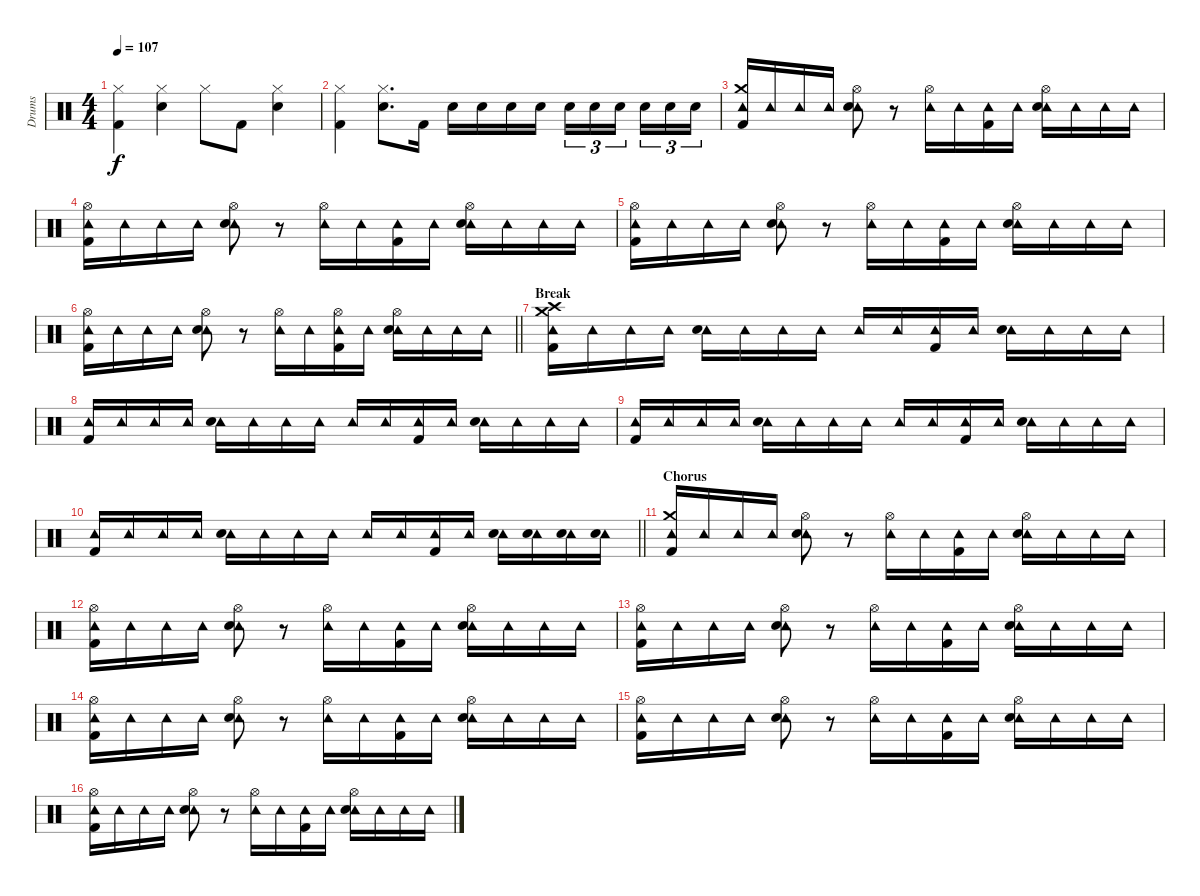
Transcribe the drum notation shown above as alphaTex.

\track ("Drums" "Drums") {instrument percussion}
\staff {score}
\articulation defaults
\ts (4 4)
\tempo 107
\clef neutral
\ks c
("Hi-Hat (closed)" "Kick (hit) 2").4{dy f} ("Hi-Hat (closed)" "Electric Snare (hit)").4 "Hi-Hat (closed)".8 "Kick (hit) 2".8 ("Hi-Hat (closed)" "Electric Snare (hit)").4 |
("Hi-Hat (closed)" "Kick (hit) 2").4 ("Hi-Hat (closed)" "Electric Snare (hit)").8{d} "Kick (hit) 2".16 "Electric Snare (hit)".16 "Electric Snare (hit)".16 "Electric Snare (hit)".16 "Electric Snare (hit)".16 "Electric Snare (hit)".16{tu (3 2)} "Electric Snare (hit)".16{tu (3 2)} "Electric Snare (hit)".16{tu (3 2) beam splitsecondary} "Electric Snare (hit)".16{tu (3 2)} "Electric Snare (hit)".16{tu (3 2)} "Electric Snare (hit)".16{tu (3 2)} |
("Crash medium (hit)" "Tambourine (hit)" "Kick (hit) 2").16 "Tambourine (hit)".16 "Tambourine (hit)".16 "Tambourine (hit)".16 ("Hi-Hat (open)" "Tambourine (hit)" "Electric Snare (hit)").8 r.8 ("Hi-Hat (open)" "Tambourine (hit)").16 "Tambourine (hit)".16 ("Tambourine (hit)" "Kick (hit) 2").16 "Tambourine (hit)".16 ("Hi-Hat (open)" "Tambourine (hit)" "Electric Snare (hit)").16 "Tambourine (hit)".16 "Tambourine (hit)".16 "Tambourine (hit)".16 |
("Hi-Hat (open)" "Tambourine (hit)" "Kick (hit) 2").16 "Tambourine (hit)".16 "Tambourine (hit)".16 "Tambourine (hit)".16 ("Hi-Hat (open)" "Tambourine (hit)" "Electric Snare (hit)").8 r.8 ("Hi-Hat (open)" "Tambourine (hit)").16 "Tambourine (hit)".16 ("Tambourine (hit)" "Kick (hit) 2").16 "Tambourine (hit)".16 ("Hi-Hat (open)" "Tambourine (hit)" "Electric Snare (hit)").16 "Tambourine (hit)".16 "Tambourine (hit)".16 "Tambourine (hit)".16 |
("Hi-Hat (open)" "Tambourine (hit)" "Kick (hit) 2").16 "Tambourine (hit)".16 "Tambourine (hit)".16 "Tambourine (hit)".16 ("Hi-Hat (open)" "Tambourine (hit)" "Electric Snare (hit)").8 r.8 ("Hi-Hat (open)" "Tambourine (hit)").16 "Tambourine (hit)".16 ("Tambourine (hit)" "Kick (hit) 2").16 "Tambourine (hit)".16 ("Hi-Hat (open)" "Tambourine (hit)" "Electric Snare (hit)").16 "Tambourine (hit)".16 "Tambourine (hit)".16 "Tambourine (hit)".16 |
\barLineRight lightlight
("Hi-Hat (open)" "Tambourine (hit)" "Kick (hit) 2").16 "Tambourine (hit)".16 "Tambourine (hit)".16 "Tambourine (hit)".16 ("Hi-Hat (open)" "Tambourine (hit)" "Electric Snare (hit)").8 r.8 ("Hi-Hat (open)" "Tambourine (hit)").16 "Tambourine (hit)".16 ("Hi-Hat (open)" "Tambourine (hit)" "Kick (hit) 2").16 "Tambourine (hit)".16 ("Hi-Hat (open)" "Tambourine (hit)" "Electric Snare (hit)").16 "Tambourine (hit)".16 "Tambourine (hit)".16 "Tambourine (hit)".16 |
\section ("" "Break")
("Crash medium (hit)" "Crash high (hit)" "Tambourine (hit)" "Kick (hit) 2").16 "Tambourine (hit)".16 "Tambourine (hit)".16 "Tambourine (hit)".16 ("Tambourine (hit)" "Electric Snare (hit)").16 "Tambourine (hit)".16 "Tambourine (hit)".16 "Tambourine (hit)".16 "Tambourine (hit)".16 "Tambourine (hit)".16 ("Tambourine (hit)" "Kick (hit) 2").16 "Tambourine (hit)".16 ("Tambourine (hit)" "Electric Snare (hit)").16 "Tambourine (hit)".16 "Tambourine (hit)".16 "Tambourine (hit)".16 |
("Tambourine (hit)" "Kick (hit) 2").16 "Tambourine (hit)".16 "Tambourine (hit)".16 "Tambourine (hit)".16 ("Tambourine (hit)" "Electric Snare (hit)").16 "Tambourine (hit)".16 "Tambourine (hit)".16 "Tambourine (hit)".16 "Tambourine (hit)".16 "Tambourine (hit)".16 ("Tambourine (hit)" "Kick (hit) 2").16 "Tambourine (hit)".16 ("Tambourine (hit)" "Electric Snare (hit)").16 "Tambourine (hit)".16 "Tambourine (hit)".16 "Tambourine (hit)".16 |
("Tambourine (hit)" "Kick (hit) 2").16 "Tambourine (hit)".16 "Tambourine (hit)".16 "Tambourine (hit)".16 ("Tambourine (hit)" "Electric Snare (hit)").16 "Tambourine (hit)".16 "Tambourine (hit)".16 "Tambourine (hit)".16 "Tambourine (hit)".16 "Tambourine (hit)".16 ("Tambourine (hit)" "Kick (hit) 2").16 "Tambourine (hit)".16 ("Tambourine (hit)" "Electric Snare (hit)").16 "Tambourine (hit)".16 "Tambourine (hit)".16 "Tambourine (hit)".16 |
\barLineRight lightlight
("Tambourine (hit)" "Kick (hit) 2").16 "Tambourine (hit)".16 "Tambourine (hit)".16 "Tambourine (hit)".16 ("Tambourine (hit)" "Electric Snare (hit)").16 "Tambourine (hit)".16 "Tambourine (hit)".16 "Tambourine (hit)".16 "Tambourine (hit)".16 "Tambourine (hit)".16 ("Tambourine (hit)" "Kick (hit) 2").16 "Tambourine (hit)".16 ("Tambourine (hit)" "Electric Snare (hit)").16 ("Tambourine (hit)" "Electric Snare (hit)").16 ("Tambourine (hit)" "Electric Snare (hit)").16 ("Tambourine (hit)" "Electric Snare (hit)").16 |
\section ("" "Chorus")
("Crash medium (hit)" "Tambourine (hit)" "Kick (hit) 2").16 "Tambourine (hit)".16 "Tambourine (hit)".16 "Tambourine (hit)".16 ("Hi-Hat (open)" "Tambourine (hit)" "Electric Snare (hit)").8 r.8 ("Hi-Hat (open)" "Tambourine (hit)").16 "Tambourine (hit)".16 ("Tambourine (hit)" "Kick (hit) 2").16 "Tambourine (hit)".16 ("Hi-Hat (open)" "Tambourine (hit)" "Electric Snare (hit)").16 "Tambourine (hit)".16 "Tambourine (hit)".16 "Tambourine (hit)".16 |
("Hi-Hat (open)" "Tambourine (hit)" "Kick (hit) 2").16 "Tambourine (hit)".16 "Tambourine (hit)".16 "Tambourine (hit)".16 ("Hi-Hat (open)" "Tambourine (hit)" "Electric Snare (hit)").8 r.8 ("Hi-Hat (open)" "Tambourine (hit)").16 "Tambourine (hit)".16 ("Tambourine (hit)" "Kick (hit) 2").16 "Tambourine (hit)".16 ("Hi-Hat (open)" "Tambourine (hit)" "Electric Snare (hit)").16 "Tambourine (hit)".16 "Tambourine (hit)".16 "Tambourine (hit)".16 |
("Hi-Hat (open)" "Tambourine (hit)" "Kick (hit) 2").16 "Tambourine (hit)".16 "Tambourine (hit)".16 "Tambourine (hit)".16 ("Hi-Hat (open)" "Tambourine (hit)" "Electric Snare (hit)").8 r.8 ("Hi-Hat (open)" "Tambourine (hit)").16 "Tambourine (hit)".16 ("Tambourine (hit)" "Kick (hit) 2").16 "Tambourine (hit)".16 ("Hi-Hat (open)" "Tambourine (hit)" "Electric Snare (hit)").16 "Tambourine (hit)".16 "Tambourine (hit)".16 "Tambourine (hit)".16 |
("Hi-Hat (open)" "Tambourine (hit)" "Kick (hit) 2").16 "Tambourine (hit)".16 "Tambourine (hit)".16 "Tambourine (hit)".16 ("Hi-Hat (open)" "Tambourine (hit)" "Electric Snare (hit)").8 r.8 ("Hi-Hat (open)" "Tambourine (hit)").16 "Tambourine (hit)".16 ("Tambourine (hit)" "Kick (hit) 2").16 "Tambourine (hit)".16 ("Hi-Hat (open)" "Tambourine (hit)" "Electric Snare (hit)").16 "Tambourine (hit)".16 "Tambourine (hit)".16 "Tambourine (hit)".16 |
("Hi-Hat (open)" "Tambourine (hit)" "Kick (hit) 2").16 "Tambourine (hit)".16 "Tambourine (hit)".16 "Tambourine (hit)".16 ("Hi-Hat (open)" "Tambourine (hit)" "Electric Snare (hit)").8 r.8 ("Hi-Hat (open)" "Tambourine (hit)").16 "Tambourine (hit)".16 ("Tambourine (hit)" "Kick (hit) 2").16 "Tambourine (hit)".16 ("Hi-Hat (open)" "Tambourine (hit)" "Electric Snare (hit)").16 "Tambourine (hit)".16 "Tambourine (hit)".16 "Tambourine (hit)".16 |
("Hi-Hat (open)" "Tambourine (hit)" "Kick (hit) 2").16 "Tambourine (hit)".16 "Tambourine (hit)".16 "Tambourine (hit)".16 ("Hi-Hat (open)" "Tambourine (hit)" "Electric Snare (hit)").8 r.8 ("Hi-Hat (open)" "Tambourine (hit)").16 "Tambourine (hit)".16 ("Tambourine (hit)" "Kick (hit) 2").16 "Tambourine (hit)".16 ("Hi-Hat (open)" "Tambourine (hit)" "Electric Snare (hit)").16 "Tambourine (hit)".16 "Tambourine (hit)".16 "Tambourine (hit)".16
